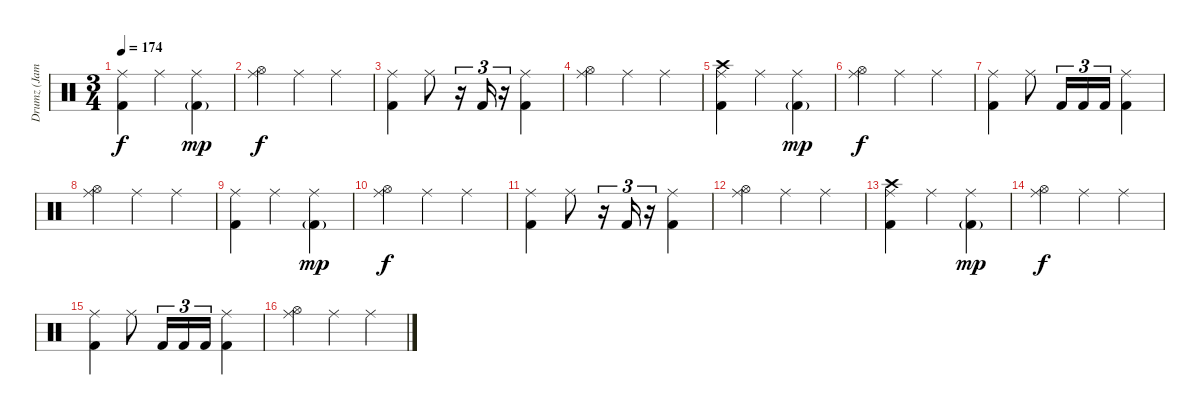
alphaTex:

\track ("Drumz (James Kottak)" "Drumz (Jam") {instrument percussion}
\staff {score}
\articulation defaults
\ts (3 4)
\tempo 174
\clef neutral
\ks c
("Ride (middle)" "Kick (hit) 2").4{dy f} "Ride (middle)".4 ("Ride (middle)" "Kick (hit) 2"{g}).4{dy mp} |
("Ride (middle)" "Hi-Hat (open)").4{dy f} "Ride (middle)".4 "Ride (middle)".4 |
("Ride (middle)" "Kick (hit) 2").4 "Ride (middle)".8 r.16{tu (3 2)} "Kick (hit) 2".16{tu (3 2)} r.16{tu (3 2)} ("Ride (middle)" "Kick (hit) 2").4 |
("Ride (middle)" "Hi-Hat (open)").4 "Ride (middle)".4 "Ride (middle)".4 |
("Ride (middle)" "Crash high (hit)" "Kick (hit) 2").4 "Ride (middle)".4 ("Ride (middle)" "Kick (hit) 2"{g}).4{dy mp} |
("Ride (middle)" "Hi-Hat (open)").4{dy f} "Ride (middle)".4 "Ride (middle)".4 |
("Ride (middle)" "Kick (hit) 2").4 "Ride (middle)".8 "Kick (hit) 2".16{tu (3 2)} "Kick (hit) 2".16{tu (3 2)} "Kick (hit) 2".16{tu (3 2)} ("Ride (middle)" "Kick (hit) 2").4 |
("Ride (middle)" "Hi-Hat (open)").4 "Ride (middle)".4 "Ride (middle)".4 |
("Ride (middle)" "Kick (hit) 2").4 "Ride (middle)".4 ("Ride (middle)" "Kick (hit) 2"{g}).4{dy mp} |
("Ride (middle)" "Hi-Hat (open)").4{dy f} "Ride (middle)".4 "Ride (middle)".4 |
("Ride (middle)" "Kick (hit) 2").4 "Ride (middle)".8 r.16{tu (3 2)} "Kick (hit) 2".16{tu (3 2)} r.16{tu (3 2)} ("Ride (middle)" "Kick (hit) 2").4 |
("Ride (middle)" "Hi-Hat (open)").4 "Ride (middle)".4 "Ride (middle)".4 |
("Ride (middle)" "Crash high (hit)" "Kick (hit) 2").4 "Ride (middle)".4 ("Ride (middle)" "Kick (hit) 2"{g}).4{dy mp} |
("Ride (middle)" "Hi-Hat (open)").4{dy f} "Ride (middle)".4 "Ride (middle)".4 |
("Ride (middle)" "Kick (hit) 2").4 "Ride (middle)".8 "Kick (hit) 2".16{tu (3 2)} "Kick (hit) 2".16{tu (3 2)} "Kick (hit) 2".16{tu (3 2)} ("Ride (middle)" "Kick (hit) 2").4 |
("Ride (middle)" "Hi-Hat (open)").4 "Ride (middle)".4 "Ride (middle)".4
